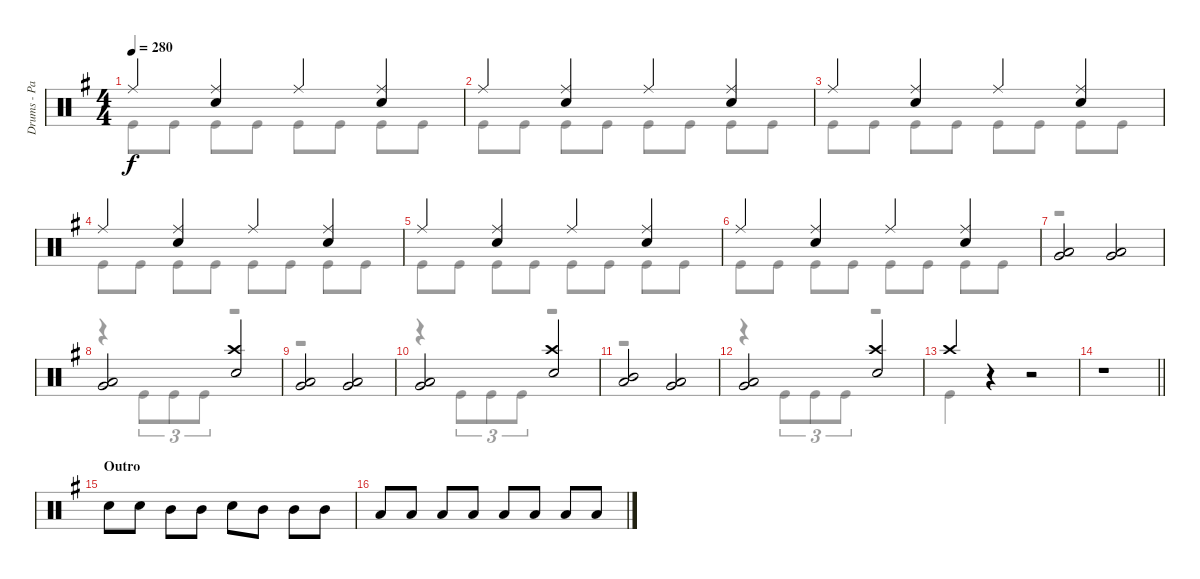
\track ("Drums - Patrick Johansson" "Drums - Pa") {instrument percussion}
\staff {score}
\articulation defaults
\voice
\ts (4 4)
\tempo 280
\clef neutral
\ks eminor "Ride (middle)".4{dy f}
("Ride (middle)" "Snare (hit) 2").4 "Ride (middle)".4 ("Ride (middle)" "Snare (hit) 2").4 |
"Ride (middle)".4 ("Ride (middle)" "Snare (hit) 2").4 "Ride (middle)".4 ("Ride (middle)" "Snare (hit) 2").4 |
"Ride (middle)".4 ("Ride (middle)" "Snare (hit) 2").4 "Ride (middle)".4 ("Ride (middle)" "Snare (hit) 2").4 |
"Ride (middle)".4 ("Ride (middle)" "Snare (hit) 2").4 "Ride (middle)".4 ("Ride (middle)" "Snare (hit) 2").4 |
"Ride (middle)".4 ("Ride (middle)" "Snare (hit) 2").4 "Ride (middle)".4 ("Ride (middle)" "Snare (hit) 2").4 |
"Ride (middle)".4 ("Ride (middle)" "Snare (hit) 2").4 "Ride (middle)".4 ("Ride (middle)" "Snare (hit) 2").4 |
("Very Low Tom (hit)" "Low Tom (hit)").2 ("Very Low Tom (hit)" "Low Tom (hit)").2 |
("Very Low Tom (hit)" "Low Tom (hit)").2 ("Crash high (hit)" "Snare (hit) 2").2 |
("Very Low Tom (hit)" "Low Tom (hit)").2 ("Very Low Tom (hit)" "Low Tom (hit)").2 |
("Very Low Tom (hit)" "Low Tom (hit)").2 ("Crash high (hit)" "Snare (hit) 2").2 |
("Low Tom (hit)" "Mid Tom (hit)").2 ("Low Tom (hit)" "Very Low Tom (hit)").2 |
("Low Tom (hit)" "Very Low Tom (hit)").2 ("Crash high (hit)" "Snare (hit) 2").2 |
"Crash high (hit)".4 r.4 r.2 |
\barLineRight lightlight
r.1 |
\section ("" "Outro")
"Snare (hit) 2".8 "Snare (hit) 2".8 "Mid Tom (hit)".8 "Mid Tom (hit)".8 "Snare (hit) 2".8 "Mid Tom (hit)".8 "Mid Tom (hit)".8 "Mid Tom (hit)".8 |
"Low Tom (hit)".8 "Low Tom (hit)".8 "Low Tom (hit)".8 "Low Tom (hit)".8 "Low Tom (hit)".8 "Low Tom (hit)".8 "Low Tom (hit)".8 "Low Tom (hit)".8
\voice
\clef neutral
\ottava regular
\simile none
\ks eminor "Kick (hit)".8{dy f} "Kick (hit)".8 "Kick (hit)".8 "Kick (hit)".8 "Kick (hit)".8 "Kick (hit)".8 "Kick (hit)".8 "Kick (hit)".8
|
"Kick (hit)".8 "Kick (hit)".8 "Kick (hit)".8 "Kick (hit)".8 "Kick (hit)".8 "Kick (hit)".8 "Kick (hit)".8 "Kick (hit)".8 |
"Kick (hit)".8 "Kick (hit)".8 "Kick (hit)".8 "Kick (hit)".8 "Kick (hit)".8 "Kick (hit)".8 "Kick (hit)".8 "Kick (hit)".8 |
"Kick (hit)".8 "Kick (hit)".8 "Kick (hit)".8 "Kick (hit)".8 "Kick (hit)".8 "Kick (hit)".8 "Kick (hit)".8 "Kick (hit)".8 |
"Kick (hit)".8 "Kick (hit)".8 "Kick (hit)".8 "Kick (hit)".8 "Kick (hit)".8 "Kick (hit)".8 "Kick (hit)".8 "Kick (hit)".8 |
"Kick (hit)".8 "Kick (hit)".8 "Kick (hit)".8 "Kick (hit)".8 "Kick (hit)".8 "Kick (hit)".8 "Kick (hit)".8 "Kick (hit)".8 |
r.1 |
r.4 "Kick (hit)".8{tu (3 2)} "Kick (hit)".8{tu (3 2)} "Kick (hit)".8{tu (3 2)} r.2 |
r.1 |
r.4 "Kick (hit)".8{tu (3 2)} "Kick (hit)".8{tu (3 2)} "Kick (hit)".8{tu (3 2)} r.2 |
r.1 |
r.4 "Kick (hit)".8{tu (3 2)} "Kick (hit)".8{tu (3 2)} "Kick (hit)".8{tu (3 2)} r.2 |
"Kick (hit)".4 r.4 r.2 |
\barLineRight lightlight
r.1 |
|
